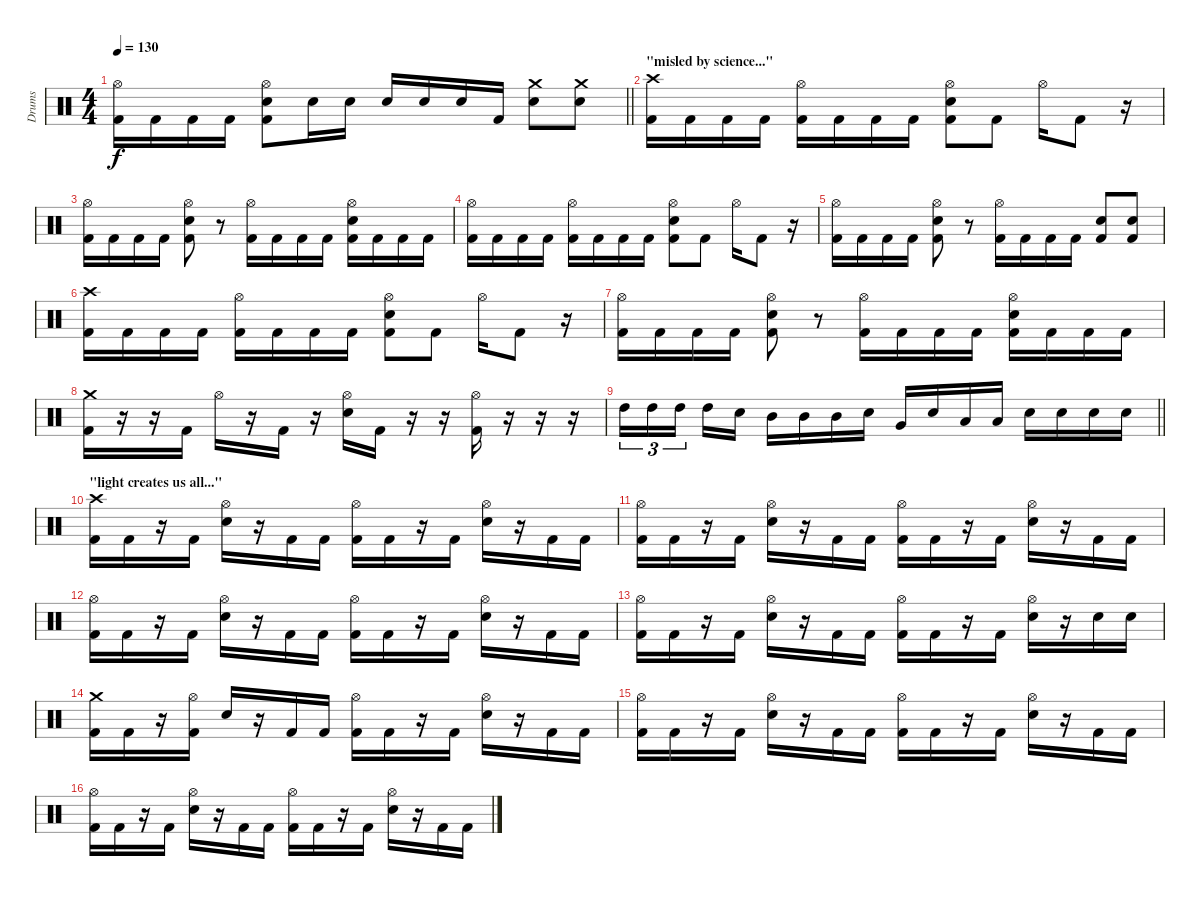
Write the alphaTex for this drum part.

\track ("Drums" "Drums") {instrument percussion}
\staff {score}
\articulation defaults
\ts (4 4)
\tempo 130
\clef neutral
\barLineRight lightlight
\ks c
("Hi-Hat (open)" "Kick (hit) 2").16{dy f} "Kick (hit) 2".16 "Kick (hit) 2".16 "Kick (hit) 2".16 ("Hi-Hat (open)" "Snare (hit) 2" "Kick (hit) 2").8 "Snare (hit) 2".16 "Snare (hit) 2".16 "Snare (hit) 2".16 "Snare (hit) 2".16 "Snare (hit) 2".16 "Kick (hit) 2".16 ("Crash medium (hit)" "Snare (hit) 2").8 ("Crash medium (hit)" "Snare (hit) 2").8 |
\section ("" "\"misled by science...\"")
("Crash high (hit)" "Kick (hit) 2").16 "Kick (hit) 2".16 "Kick (hit) 2".16 "Kick (hit) 2".16 ("Hi-Hat (open)" "Kick (hit) 2").16 "Kick (hit) 2".16 "Kick (hit) 2".16 "Kick (hit) 2".16 ("Hi-Hat (open)" "Snare (hit) 2" "Kick (hit) 2").8 "Kick (hit) 2".8 "Hi-Hat (open)".16 "Kick (hit) 2".8 r.16 |
("Hi-Hat (open)" "Kick (hit) 2").16 "Kick (hit) 2".16 "Kick (hit) 2".16 "Kick (hit) 2".16 ("Hi-Hat (open)" "Snare (hit) 2" "Kick (hit) 2").8 r.8 ("Hi-Hat (open)" "Kick (hit) 2").16 "Kick (hit) 2".16 "Kick (hit) 2".16 "Kick (hit) 2".16 ("Hi-Hat (open)" "Snare (hit) 2" "Kick (hit) 2").16 "Kick (hit) 2".16 "Kick (hit) 2".16 "Kick (hit) 2".16 |
("Hi-Hat (open)" "Kick (hit) 2").16 "Kick (hit) 2".16 "Kick (hit) 2".16 "Kick (hit) 2".16 ("Hi-Hat (open)" "Kick (hit) 2").16 "Kick (hit) 2".16 "Kick (hit) 2".16 "Kick (hit) 2".16 ("Hi-Hat (open)" "Snare (hit) 2" "Kick (hit) 2").8 "Kick (hit) 2".8 "Hi-Hat (open)".16 "Kick (hit) 2".8 r.16 |
("Hi-Hat (open)" "Kick (hit) 2").16 "Kick (hit) 2".16 "Kick (hit) 2".16 "Kick (hit) 2".16 ("Hi-Hat (open)" "Snare (hit) 2" "Kick (hit) 2").8 r.8 ("Hi-Hat (open)" "Kick (hit) 2").16 "Kick (hit) 2".16 "Kick (hit) 2".16 "Kick (hit) 2".16 ("Snare (hit) 2" "Kick (hit) 2").8 ("Snare (hit) 2" "Kick (hit) 2").8 |
("Crash high (hit)" "Kick (hit) 2").16 "Kick (hit) 2".16 "Kick (hit) 2".16 "Kick (hit) 2".16 ("Hi-Hat (open)" "Kick (hit) 2").16 "Kick (hit) 2".16 "Kick (hit) 2".16 "Kick (hit) 2".16 ("Hi-Hat (open)" "Snare (hit) 2" "Kick (hit) 2").8 "Kick (hit) 2".8 "Hi-Hat (open)".16 "Kick (hit) 2".8 r.16 |
("Hi-Hat (open)" "Kick (hit) 2").16 "Kick (hit) 2".16 "Kick (hit) 2".16 "Kick (hit) 2".16 ("Hi-Hat (open)" "Snare (hit) 2" "Kick (hit) 2").8 r.8 ("Hi-Hat (open)" "Kick (hit) 2").16 "Kick (hit) 2".16 "Kick (hit) 2".16 "Kick (hit) 2".16 ("Hi-Hat (open)" "Snare (hit) 2" "Kick (hit) 2").16 "Kick (hit) 2".16 "Kick (hit) 2".16 "Kick (hit) 2".16 |
("Crash medium (hit)" "Kick (hit) 2").16 r.16 r.16 "Kick (hit) 2".16 "Hi-Hat (open)".16 r.16 "Kick (hit) 2".16 r.16 ("Hi-Hat (open)" "Snare (hit) 2").16 "Kick (hit) 2".16 r.16 r.16 ("Hi-Hat (open)" "Kick (hit) 2").16 r.16 r.16 r.16 |
\barLineRight lightlight "High Tom (hit)".16{tu (3 2)} "High Tom (hit)".16{tu (3 2)} "High Tom (hit)".16{tu (3 2)} "High Tom (hit)".16 "Snare (hit) 2".16 "Mid Tom (hit)".16 "Mid Tom (hit)".16 "Mid Tom (hit)".16 "Snare (hit) 2".16 "Very Low Tom (hit)".16 "Snare (hit) 2".16 "Low Tom (hit)".16 "Low Tom (hit)".16 "Snare (hit) 2".16 "Snare (hit) 2".16 "Snare (hit) 2".16 "Snare (hit) 2".16
|
\section ("" "\"light creates us all...\"")
("Crash high (hit)" "Kick (hit) 2").16 "Kick (hit) 2".16 r.16 "Kick (hit) 2".16 ("Hi-Hat (open)" "Snare (hit) 2").16 r.16 "Kick (hit) 2".16 "Kick (hit) 2".16 ("Hi-Hat (open)" "Kick (hit) 2").16 "Kick (hit) 2".16 r.16 "Kick (hit) 2".16 ("Hi-Hat (open)" "Snare (hit) 2").16 r.16 "Kick (hit) 2".16 "Kick (hit) 2".16 |
("Hi-Hat (open)" "Kick (hit) 2").16 "Kick (hit) 2".16 r.16 "Kick (hit) 2".16 ("Hi-Hat (open)" "Snare (hit) 2").16 r.16 "Kick (hit) 2".16 "Kick (hit) 2".16 ("Hi-Hat (open)" "Kick (hit) 2").16 "Kick (hit) 2".16 r.16 "Kick (hit) 2".16 ("Hi-Hat (open)" "Snare (hit) 2").16 r.16 "Kick (hit) 2".16 "Kick (hit) 2".16 |
("Hi-Hat (open)" "Kick (hit) 2").16 "Kick (hit) 2".16 r.16 "Kick (hit) 2".16 ("Hi-Hat (open)" "Snare (hit) 2").16 r.16 "Kick (hit) 2".16 "Kick (hit) 2".16 ("Hi-Hat (open)" "Kick (hit) 2").16 "Kick (hit) 2".16 r.16 "Kick (hit) 2".16 ("Hi-Hat (open)" "Snare (hit) 2").16 r.16 "Kick (hit) 2".16 "Kick (hit) 2".16 |
("Hi-Hat (open)" "Kick (hit) 2").16 "Kick (hit) 2".16 r.16 "Kick (hit) 2".16 ("Hi-Hat (open)" "Snare (hit) 2").16 r.16 "Kick (hit) 2".16 "Kick (hit) 2".16 ("Hi-Hat (open)" "Kick (hit) 2").16 "Kick (hit) 2".16 r.16 "Kick (hit) 2".16 ("Hi-Hat (open)" "Snare (hit) 2").16 r.16 "Snare (hit) 2".16 "Snare (hit) 2".16 |
("Crash medium (hit)" "Kick (hit) 2").16 "Kick (hit) 2".16 r.16 ("Hi-Hat (open)" "Kick (hit) 2").16 "Snare (hit) 2".16 r.16 "Kick (hit) 2".16 "Kick (hit) 2".16 ("Hi-Hat (open)" "Kick (hit) 2").16 "Kick (hit) 2".16 r.16 "Kick (hit) 2".16 ("Hi-Hat (open)" "Snare (hit) 2").16 r.16 "Kick (hit) 2".16 "Kick (hit) 2".16 |
("Hi-Hat (open)" "Kick (hit) 2").16 "Kick (hit) 2".16 r.16 "Kick (hit) 2".16 ("Hi-Hat (open)" "Snare (hit) 2").16 r.16 "Kick (hit) 2".16 "Kick (hit) 2".16 ("Hi-Hat (open)" "Kick (hit) 2").16 "Kick (hit) 2".16 r.16 "Kick (hit) 2".16 ("Hi-Hat (open)" "Snare (hit) 2").16 r.16 "Kick (hit) 2".16 "Kick (hit) 2".16 |
("Hi-Hat (open)" "Kick (hit) 2").16 "Kick (hit) 2".16 r.16 "Kick (hit) 2".16 ("Hi-Hat (open)" "Snare (hit) 2").16 r.16 "Kick (hit) 2".16 "Kick (hit) 2".16 ("Hi-Hat (open)" "Kick (hit) 2").16 "Kick (hit) 2".16 r.16 "Kick (hit) 2".16 ("Hi-Hat (open)" "Snare (hit) 2").16 r.16 "Kick (hit) 2".16 "Kick (hit) 2".16
